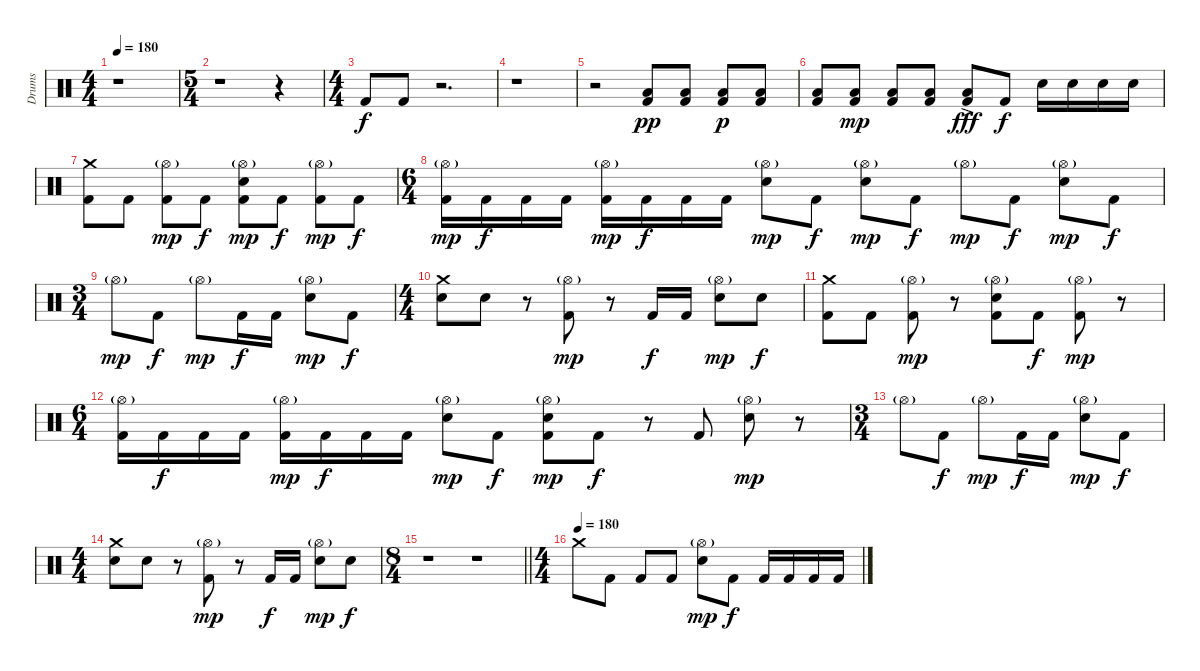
\track ("Drums" "Drums") {instrument percussion}
\staff {score}
\articulation defaults
\ts (4 4)
\tempo 180
\clef neutral
\ks c
r.1{dy f} |
\ts (5 4)
r.1 r.4 |
\ts (4 4)
"Kick (hit) 2".8 "Kick (hit) 2".8 r.2{d} |
r.1 |
r.2 ("Low Tom (hit)" "Kick (hit) 2").8{dy pp} ("Low Tom (hit)" "Kick (hit) 2").8 ("Low Tom (hit)" "Kick (hit) 2").8{dy p} ("Low Tom (hit)" "Kick (hit) 2").8 |
("Low Tom (hit)" "Kick (hit) 2").8 ("Low Tom (hit)" "Kick (hit) 2").8{dy mp} ("Low Tom (hit)" "Kick (hit) 2").8 ("Low Tom (hit)" "Kick (hit) 2").8 ("Low Tom (hit)"{ac} "Kick (hit) 2").8{dy fff} "Kick (hit) 2".8{dy f} "Electric Snare (hit)".16 "Electric Snare (hit)".16 "Electric Snare (hit)".16 "Electric Snare (hit)".16 |
("Crash medium (hit)" "Kick (hit) 2").8 "Kick (hit) 2".8 ("Hi-Hat (open)"{g} "Kick (hit) 2").8{dy mp} "Kick (hit) 2".8{dy f} ("Hi-Hat (open)"{g} "Electric Snare (hit)" "Kick (hit) 2").8{dy mp} "Kick (hit) 2".8{dy f} ("Hi-Hat (open)"{g} "Kick (hit) 2").8{dy mp} "Kick (hit) 2".8{dy f} |
\ts (6 4)
("Hi-Hat (open)"{g} "Kick (hit) 2").16{dy mp} "Kick (hit) 2".16{dy f} "Kick (hit) 2".16 "Kick (hit) 2".16 ("Hi-Hat (open)"{g} "Kick (hit) 2").16{dy mp} "Kick (hit) 2".16{dy f} "Kick (hit) 2".16 "Kick (hit) 2".16 ("Hi-Hat (open)"{g} "Electric Snare (hit)").8{dy mp} "Kick (hit) 2".8{dy f} ("Hi-Hat (open)"{g} "Electric Snare (hit)").8{dy mp} "Kick (hit) 2".8{dy f} "Hi-Hat (open)"{g}.8{dy mp} "Kick (hit) 2".8{dy f} ("Hi-Hat (open)"{g} "Electric Snare (hit)").8{dy mp} "Kick (hit) 2".8{dy f} |
\ts (3 4)
"Hi-Hat (open)"{g}.8{dy mp} "Kick (hit) 2".8{dy f} "Hi-Hat (open)"{g}.8{dy mp} "Kick (hit) 2".16{dy f} "Kick (hit) 2".16 ("Hi-Hat (open)"{g} "Electric Snare (hit)").8{dy mp} "Kick (hit) 2".8{dy f} |
\ts (4 4)
("Crash medium (hit)" "Electric Snare (hit)").8 "Electric Snare (hit)".8 r.8 ("Hi-Hat (open)"{g} "Kick (hit) 2").8{dy mp} r.8 "Kick (hit) 2".16{dy f} "Kick (hit) 2".16 ("Hi-Hat (open)"{g} "Electric Snare (hit)").8{dy mp} "Electric Snare (hit)".8{dy f} |
("Crash medium (hit)" "Kick (hit) 2").8 "Kick (hit) 2".8 ("Hi-Hat (open)"{g} "Kick (hit) 2").8{dy mp} r.8 ("Hi-Hat (open)"{g} "Electric Snare (hit)" "Kick (hit) 2").8 "Kick (hit) 2".8{dy f} ("Hi-Hat (open)"{g} "Kick (hit) 2").8{dy mp} r.8 |
\ts (6 4)
("Hi-Hat (open)"{g} "Kick (hit) 2").16 "Kick (hit) 2".16{dy f} "Kick (hit) 2".16 "Kick (hit) 2".16 ("Hi-Hat (open)"{g} "Kick (hit) 2").16{dy mp} "Kick (hit) 2".16{dy f} "Kick (hit) 2".16 "Kick (hit) 2".16 ("Hi-Hat (open)"{g} "Electric Snare (hit)").8{dy mp} "Kick (hit) 2".8{dy f} ("Hi-Hat (open)"{g} "Electric Snare (hit)" "Kick (hit) 2").8{dy mp} "Kick (hit) 2".8{dy f} r.8 "Kick (hit) 2".8 ("Hi-Hat (open)"{g} "Electric Snare (hit)").8{dy mp} r.8 |
\ts (3 4)
"Hi-Hat (open)"{g}.8 "Kick (hit) 2".8{dy f} "Hi-Hat (open)"{g}.8{dy mp} "Kick (hit) 2".16{dy f} "Kick (hit) 2".16 ("Hi-Hat (open)"{g} "Electric Snare (hit)").8{dy mp} "Kick (hit) 2".8{dy f} |
\ts (4 4)
("Crash medium (hit)" "Electric Snare (hit)").8 "Electric Snare (hit)".8 r.8 ("Hi-Hat (open)"{g} "Kick (hit) 2").8{dy mp} r.8 "Kick (hit) 2".16{dy f} "Kick (hit) 2".16 ("Hi-Hat (open)"{g} "Electric Snare (hit)").8{dy mp} "Electric Snare (hit)".8{dy f} |
\ts (8 4)
\barLineRight lightlight
r.1 r.1 |
\ts (4 4)
\tempo (180)
"Crash medium (hit)".8 "Kick (hit) 2".8 "Kick (hit) 2".8 "Kick (hit) 2".8 ("Hi-Hat (open)"{g} "Electric Snare (hit)").8{dy mp} "Kick (hit) 2".8{dy f} "Kick (hit) 2".16 "Kick (hit) 2".16 "Kick (hit) 2".16 "Kick (hit) 2".16
